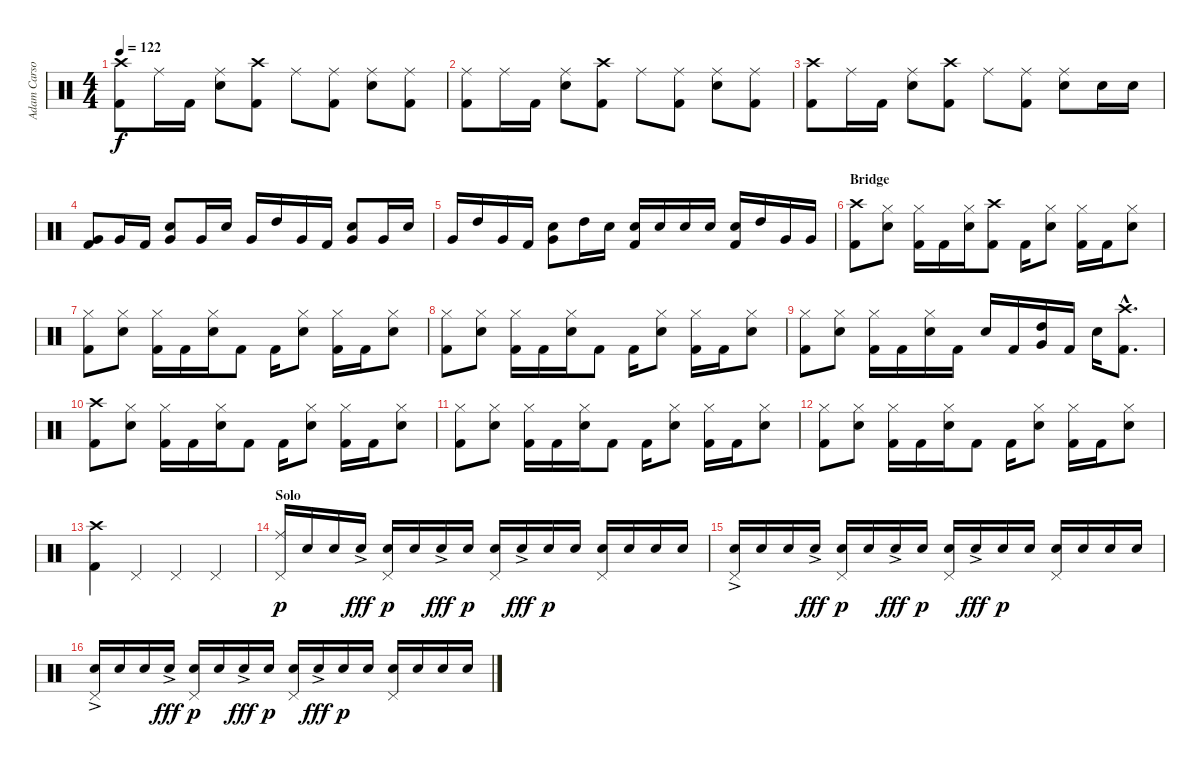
\track ("Adam Carson" "Adam Carso") {instrument percussion}
\staff {score}
\articulation defaults
\ts (4 4)
\tempo 122
\clef neutral
\ks c
("Crash high (hit)" "Kick (hit) 2").8{dy f} "Ride (middle)".16 "Kick (hit) 2".16 ("Ride (middle)" "Electric Snare (hit)").8 ("Crash high (hit)" "Kick (hit) 2").8 "Ride (middle)".8 ("Ride (middle)" "Kick (hit) 2").8 ("Ride (middle)" "Electric Snare (hit)").8 ("Ride (middle)" "Kick (hit) 2").8 |
("Ride (middle)" "Kick (hit) 2").8 "Ride (middle)".16 "Kick (hit) 2".16 ("Ride (middle)" "Electric Snare (hit)").8 ("Crash high (hit)" "Kick (hit) 2").8 "Ride (middle)".8 ("Ride (middle)" "Kick (hit) 2").8 ("Ride (middle)" "Electric Snare (hit)").8 ("Ride (middle)" "Kick (hit) 2").8 |
("Crash high (hit)" "Kick (hit) 2").8 "Ride (middle)".16 "Kick (hit) 2".16 ("Ride (middle)" "Electric Snare (hit)").8 ("Crash high (hit)" "Kick (hit) 2").8 "Ride (middle)".8 ("Ride (middle)" "Kick (hit) 2").8 ("Ride (middle)" "Electric Snare (hit)").8 "Electric Snare (hit)".16 "Electric Snare (hit)".16 |
("Very Low Tom (hit)" "Kick (hit) 2").8 "Very Low Tom (hit)".16 "Kick (hit) 2".16 ("Very Low Tom (hit)" "Electric Snare (hit)").8 "Very Low Tom (hit)".16 "Electric Snare (hit)".16 "Very Low Tom (hit)".16 "High Tom (hit)".16 "Very Low Tom (hit)".16 "Kick (hit) 2".16 ("Very Low Tom (hit)" "Electric Snare (hit)").8 "Very Low Tom (hit)".16 "Electric Snare (hit)".16 |
"Very Low Tom (hit)".16 "High Tom (hit)".16 "Very Low Tom (hit)".16 "Kick (hit) 2".16 ("Very Low Tom (hit)" "Electric Snare (hit)").8 "High Tom (hit)".16 "Electric Snare (hit)".16 ("Electric Snare (hit)" "Kick (hit) 2").16 "Electric Snare (hit)".16 "Electric Snare (hit)".16 "Electric Snare (hit)".16 ("Electric Snare (hit)" "Kick (hit) 2").16 "High Tom (hit)".16 "Very Low Tom (hit)".16 "Very Low Tom (hit)".16 |
\section ("" "Bridge")
("Crash high (hit)" "Kick (hit) 2").8 ("Hi-Hat (closed)" "Electric Snare (hit)").8 ("Hi-Hat (closed)" "Kick (hit) 2").16 "Kick (hit) 2".16 ("Hi-Hat (closed)" "Electric Snare (hit)").16 ("Crash high (hit)" "Kick (hit) 2").8 "Kick (hit) 2".16 ("Hi-Hat (closed)" "Electric Snare (hit)").8 ("Hi-Hat (closed)" "Kick (hit) 2").16 "Kick (hit) 2".16 ("Hi-Hat (closed)" "Electric Snare (hit)").8 |
("Hi-Hat (closed)" "Kick (hit) 2").8 ("Hi-Hat (closed)" "Electric Snare (hit)").8 ("Hi-Hat (closed)" "Kick (hit) 2").16 "Kick (hit) 2".16 ("Hi-Hat (closed)" "Electric Snare (hit)").16 "Kick (hit) 2".8 "Kick (hit) 2".16 ("Hi-Hat (closed)" "Electric Snare (hit)").8 ("Hi-Hat (closed)" "Kick (hit) 2").16 "Kick (hit) 2".16 ("Hi-Hat (closed)" "Electric Snare (hit)").8 |
("Hi-Hat (closed)" "Kick (hit) 2").8 ("Hi-Hat (closed)" "Electric Snare (hit)").8 ("Hi-Hat (closed)" "Kick (hit) 2").16 "Kick (hit) 2".16 ("Hi-Hat (closed)" "Electric Snare (hit)").16 "Kick (hit) 2".8 "Kick (hit) 2".16 ("Hi-Hat (closed)" "Electric Snare (hit)").8 ("Hi-Hat (closed)" "Kick (hit) 2").16 "Kick (hit) 2".16 ("Hi-Hat (closed)" "Electric Snare (hit)").8 |
("Hi-Hat (closed)" "Kick (hit) 2").8 ("Hi-Hat (closed)" "Electric Snare (hit)").8 ("Hi-Hat (closed)" "Kick (hit) 2").16 "Kick (hit) 2".16 ("Hi-Hat (closed)" "Electric Snare (hit)").16 "Kick (hit) 2".16 "Electric Snare (hit)".16 "Kick (hit) 2".16 ("High Tom (hit)" "Very Low Tom (hit)").16 "Kick (hit) 2".16 "Electric Snare (hit)".16 ("Crash high (hit)"{hac} "Kick (hit) 2"{hac}).8{d} |
("Crash high (hit)" "Kick (hit) 2").8 ("Hi-Hat (closed)" "Electric Snare (hit)").8 ("Hi-Hat (closed)" "Kick (hit) 2").16 "Kick (hit) 2".16 ("Hi-Hat (closed)" "Electric Snare (hit)").16 "Kick (hit) 2".8 "Kick (hit) 2".16 ("Hi-Hat (closed)" "Electric Snare (hit)").8 ("Hi-Hat (closed)" "Kick (hit) 2").16 "Kick (hit) 2".16 ("Hi-Hat (closed)" "Electric Snare (hit)").8 |
("Hi-Hat (closed)" "Kick (hit) 2").8 ("Hi-Hat (closed)" "Electric Snare (hit)").8 ("Hi-Hat (closed)" "Kick (hit) 2").16 "Kick (hit) 2".16 ("Hi-Hat (closed)" "Electric Snare (hit)").16 "Kick (hit) 2".8 "Kick (hit) 2".16 ("Hi-Hat (closed)" "Electric Snare (hit)").8 ("Hi-Hat (closed)" "Kick (hit) 2").16 "Kick (hit) 2".16 ("Hi-Hat (closed)" "Electric Snare (hit)").8 |
("Hi-Hat (closed)" "Kick (hit) 2").8 ("Hi-Hat (closed)" "Electric Snare (hit)").8 ("Hi-Hat (closed)" "Kick (hit) 2").16 "Kick (hit) 2".16 ("Hi-Hat (closed)" "Electric Snare (hit)").16 "Kick (hit) 2".8 "Kick (hit) 2".16 ("Hi-Hat (closed)" "Electric Snare (hit)").8 ("Hi-Hat (closed)" "Kick (hit) 2").16 "Kick (hit) 2".16 ("Hi-Hat (closed)" "Electric Snare (hit)").8 |
("Crash high (hit)" "Kick (hit) 2").4 "Pedal Hi-Hat (hit)".4 "Pedal Hi-Hat (hit)".4 "Pedal Hi-Hat (hit)".4 |
\section ("" "Solo")
("Ride (middle)" "Pedal Hi-Hat (hit)").16{dy p} "Electric Snare (hit)".16 "Electric Snare (hit)".16 "Electric Snare (hit)"{ac}.16{dy fff} ("Electric Snare (hit)" "Pedal Hi-Hat (hit)").16{dy p} "Electric Snare (hit)".16 "Electric Snare (hit)"{ac}.16{dy fff} "Electric Snare (hit)".16{dy p} ("Electric Snare (hit)" "Pedal Hi-Hat (hit)").16 "Electric Snare (hit)"{ac}.16{dy fff} "Electric Snare (hit)".16{dy p} "Electric Snare (hit)".16 ("Electric Snare (hit)" "Pedal Hi-Hat (hit)").16 "Electric Snare (hit)".16 "Electric Snare (hit)".16 "Electric Snare (hit)".16 |
("Electric Snare (hit)"{ac} "Pedal Hi-Hat (hit)").16 "Electric Snare (hit)".16 "Electric Snare (hit)".16 "Electric Snare (hit)"{ac}.16{dy fff} ("Electric Snare (hit)" "Pedal Hi-Hat (hit)").16{dy p} "Electric Snare (hit)".16 "Electric Snare (hit)"{ac}.16{dy fff} "Electric Snare (hit)".16{dy p} ("Electric Snare (hit)" "Pedal Hi-Hat (hit)").16 "Electric Snare (hit)"{ac}.16{dy fff} "Electric Snare (hit)".16{dy p} "Electric Snare (hit)".16 ("Electric Snare (hit)" "Pedal Hi-Hat (hit)").16 "Electric Snare (hit)".16 "Electric Snare (hit)".16 "Electric Snare (hit)".16 |
("Electric Snare (hit)"{ac} "Pedal Hi-Hat (hit)").16 "Electric Snare (hit)".16 "Electric Snare (hit)".16 "Electric Snare (hit)"{ac}.16{dy fff} ("Electric Snare (hit)" "Pedal Hi-Hat (hit)").16{dy p} "Electric Snare (hit)".16 "Electric Snare (hit)"{ac}.16{dy fff} "Electric Snare (hit)".16{dy p} ("Electric Snare (hit)" "Pedal Hi-Hat (hit)").16 "Electric Snare (hit)"{ac}.16{dy fff} "Electric Snare (hit)".16{dy p} "Electric Snare (hit)".16 ("Electric Snare (hit)" "Pedal Hi-Hat (hit)").16 "Electric Snare (hit)".16 "Electric Snare (hit)".16 "Electric Snare (hit)".16
